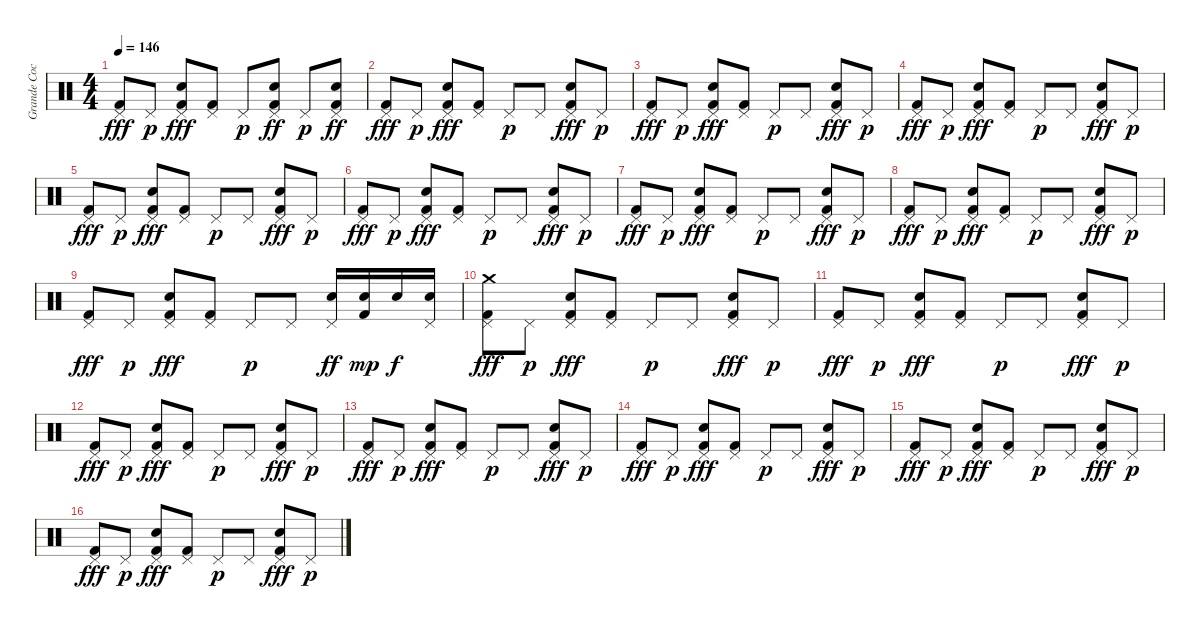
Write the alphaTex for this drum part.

\track ("Grande Coco !" "Grande Coc") {instrument percussion}
\staff {score}
\articulation defaults
\ts (4 4)
\tempo 146
\clef neutral
\ks c
("Pedal Hi-Hat (hit)" "Kick (hit) 2").8{dy fff} "Pedal Hi-Hat (hit)".8{dy p} ("Pedal Hi-Hat (hit)" "Electric Snare (hit)" "Kick (hit) 2").8{dy fff} ("Pedal Hi-Hat (hit)" "Kick (hit) 2").8 "Pedal Hi-Hat (hit)".8{dy p} ("Pedal Hi-Hat (hit)" "Electric Snare (hit)" "Kick (hit) 2").8{dy ff} "Pedal Hi-Hat (hit)".8{dy p} ("Pedal Hi-Hat (hit)" "Electric Snare (hit)" "Kick (hit) 2").8{dy ff} |
("Pedal Hi-Hat (hit)" "Kick (hit) 2").8{dy fff} "Pedal Hi-Hat (hit)".8{dy p} ("Pedal Hi-Hat (hit)" "Electric Snare (hit)" "Kick (hit) 2").8{dy fff} ("Pedal Hi-Hat (hit)" "Kick (hit) 2").8 "Pedal Hi-Hat (hit)".8{dy p} "Pedal Hi-Hat (hit)".8 ("Pedal Hi-Hat (hit)" "Electric Snare (hit)" "Kick (hit) 2").8{dy fff} "Pedal Hi-Hat (hit)".8{dy p} |
("Pedal Hi-Hat (hit)" "Kick (hit) 2").8{dy fff} "Pedal Hi-Hat (hit)".8{dy p} ("Pedal Hi-Hat (hit)" "Electric Snare (hit)" "Kick (hit) 2").8{dy fff} ("Pedal Hi-Hat (hit)" "Kick (hit) 2").8 "Pedal Hi-Hat (hit)".8{dy p} "Pedal Hi-Hat (hit)".8 ("Pedal Hi-Hat (hit)" "Electric Snare (hit)" "Kick (hit) 2").8{dy fff} "Pedal Hi-Hat (hit)".8{dy p} |
("Pedal Hi-Hat (hit)" "Kick (hit) 2").8{dy fff} "Pedal Hi-Hat (hit)".8{dy p} ("Pedal Hi-Hat (hit)" "Electric Snare (hit)" "Kick (hit) 2").8{dy fff} ("Pedal Hi-Hat (hit)" "Kick (hit) 2").8 "Pedal Hi-Hat (hit)".8{dy p} "Pedal Hi-Hat (hit)".8 ("Pedal Hi-Hat (hit)" "Electric Snare (hit)" "Kick (hit) 2").8{dy fff} "Pedal Hi-Hat (hit)".8{dy p} |
("Pedal Hi-Hat (hit)" "Kick (hit) 2").8{dy fff} "Pedal Hi-Hat (hit)".8{dy p} ("Pedal Hi-Hat (hit)" "Electric Snare (hit)" "Kick (hit) 2").8{dy fff} ("Pedal Hi-Hat (hit)" "Kick (hit) 2").8 "Pedal Hi-Hat (hit)".8{dy p} "Pedal Hi-Hat (hit)".8 ("Pedal Hi-Hat (hit)" "Electric Snare (hit)" "Kick (hit) 2").8{dy fff} "Pedal Hi-Hat (hit)".8{dy p} |
("Pedal Hi-Hat (hit)" "Kick (hit) 2").8{dy fff} "Pedal Hi-Hat (hit)".8{dy p} ("Pedal Hi-Hat (hit)" "Electric Snare (hit)" "Kick (hit) 2").8{dy fff} ("Pedal Hi-Hat (hit)" "Kick (hit) 2").8 "Pedal Hi-Hat (hit)".8{dy p} "Pedal Hi-Hat (hit)".8 ("Pedal Hi-Hat (hit)" "Electric Snare (hit)" "Kick (hit) 2").8{dy fff} "Pedal Hi-Hat (hit)".8{dy p} |
("Pedal Hi-Hat (hit)" "Kick (hit) 2").8{dy fff} "Pedal Hi-Hat (hit)".8{dy p} ("Pedal Hi-Hat (hit)" "Electric Snare (hit)" "Kick (hit) 2").8{dy fff} ("Pedal Hi-Hat (hit)" "Kick (hit) 2").8 "Pedal Hi-Hat (hit)".8{dy p} "Pedal Hi-Hat (hit)".8 ("Pedal Hi-Hat (hit)" "Electric Snare (hit)" "Kick (hit) 2").8{dy fff} "Pedal Hi-Hat (hit)".8{dy p} |
("Pedal Hi-Hat (hit)" "Kick (hit) 2").8{dy fff} "Pedal Hi-Hat (hit)".8{dy p} ("Pedal Hi-Hat (hit)" "Electric Snare (hit)" "Kick (hit) 2").8{dy fff} ("Pedal Hi-Hat (hit)" "Kick (hit) 2").8 "Pedal Hi-Hat (hit)".8{dy p} "Pedal Hi-Hat (hit)".8 ("Pedal Hi-Hat (hit)" "Electric Snare (hit)" "Kick (hit) 2").8{dy fff} "Pedal Hi-Hat (hit)".8{dy p} |
("Pedal Hi-Hat (hit)" "Kick (hit) 2").8{dy fff} "Pedal Hi-Hat (hit)".8{dy p} ("Pedal Hi-Hat (hit)" "Electric Snare (hit)" "Kick (hit) 2").8{dy fff} ("Pedal Hi-Hat (hit)" "Kick (hit) 2").8 "Pedal Hi-Hat (hit)".8{dy p} "Pedal Hi-Hat (hit)".8 ("Pedal Hi-Hat (hit)" "Electric Snare (hit)").16{dy ff} ("Electric Snare (hit)" "Kick (hit) 2").16{dy mp} "Electric Snare (hit)".16{dy f} ("Pedal Hi-Hat (hit)" "Electric Snare (hit)").16 |
("Pedal Hi-Hat (hit)" "Crash medium (hit)" "Kick (hit) 2").8{dy fff} "Pedal Hi-Hat (hit)".8{dy p} ("Pedal Hi-Hat (hit)" "Electric Snare (hit)" "Kick (hit) 2").8{dy fff} ("Pedal Hi-Hat (hit)" "Kick (hit) 2").8 "Pedal Hi-Hat (hit)".8{dy p} "Pedal Hi-Hat (hit)".8 ("Pedal Hi-Hat (hit)" "Electric Snare (hit)" "Kick (hit) 2").8{dy fff} "Pedal Hi-Hat (hit)".8{dy p} |
("Pedal Hi-Hat (hit)" "Kick (hit) 2").8{dy fff} "Pedal Hi-Hat (hit)".8{dy p} ("Pedal Hi-Hat (hit)" "Electric Snare (hit)" "Kick (hit) 2").8{dy fff} ("Pedal Hi-Hat (hit)" "Kick (hit) 2").8 "Pedal Hi-Hat (hit)".8{dy p} "Pedal Hi-Hat (hit)".8 ("Pedal Hi-Hat (hit)" "Electric Snare (hit)" "Kick (hit) 2").8{dy fff} "Pedal Hi-Hat (hit)".8{dy p} |
("Pedal Hi-Hat (hit)" "Kick (hit) 2").8{dy fff} "Pedal Hi-Hat (hit)".8{dy p} ("Pedal Hi-Hat (hit)" "Electric Snare (hit)" "Kick (hit) 2").8{dy fff} ("Pedal Hi-Hat (hit)" "Kick (hit) 2").8 "Pedal Hi-Hat (hit)".8{dy p} "Pedal Hi-Hat (hit)".8 ("Pedal Hi-Hat (hit)" "Electric Snare (hit)" "Kick (hit) 2").8{dy fff} "Pedal Hi-Hat (hit)".8{dy p} |
("Pedal Hi-Hat (hit)" "Kick (hit) 2").8{dy fff} "Pedal Hi-Hat (hit)".8{dy p} ("Pedal Hi-Hat (hit)" "Electric Snare (hit)" "Kick (hit) 2").8{dy fff} ("Pedal Hi-Hat (hit)" "Kick (hit) 2").8 "Pedal Hi-Hat (hit)".8{dy p} "Pedal Hi-Hat (hit)".8 ("Pedal Hi-Hat (hit)" "Electric Snare (hit)" "Kick (hit) 2").8{dy fff} "Pedal Hi-Hat (hit)".8{dy p} |
("Pedal Hi-Hat (hit)" "Kick (hit) 2").8{dy fff} "Pedal Hi-Hat (hit)".8{dy p} ("Pedal Hi-Hat (hit)" "Electric Snare (hit)" "Kick (hit) 2").8{dy fff} ("Pedal Hi-Hat (hit)" "Kick (hit) 2").8 "Pedal Hi-Hat (hit)".8{dy p} "Pedal Hi-Hat (hit)".8 ("Pedal Hi-Hat (hit)" "Electric Snare (hit)" "Kick (hit) 2").8{dy fff} "Pedal Hi-Hat (hit)".8{dy p} |
("Pedal Hi-Hat (hit)" "Kick (hit) 2").8{dy fff} "Pedal Hi-Hat (hit)".8{dy p} ("Pedal Hi-Hat (hit)" "Electric Snare (hit)" "Kick (hit) 2").8{dy fff} ("Pedal Hi-Hat (hit)" "Kick (hit) 2").8 "Pedal Hi-Hat (hit)".8{dy p} "Pedal Hi-Hat (hit)".8 ("Pedal Hi-Hat (hit)" "Electric Snare (hit)" "Kick (hit) 2").8{dy fff} "Pedal Hi-Hat (hit)".8{dy p} |
("Pedal Hi-Hat (hit)" "Kick (hit) 2").8{dy fff} "Pedal Hi-Hat (hit)".8{dy p} ("Pedal Hi-Hat (hit)" "Electric Snare (hit)" "Kick (hit) 2").8{dy fff} ("Pedal Hi-Hat (hit)" "Kick (hit) 2").8 "Pedal Hi-Hat (hit)".8{dy p} "Pedal Hi-Hat (hit)".8 ("Pedal Hi-Hat (hit)" "Electric Snare (hit)" "Kick (hit) 2").8{dy fff} "Pedal Hi-Hat (hit)".8{dy p}
